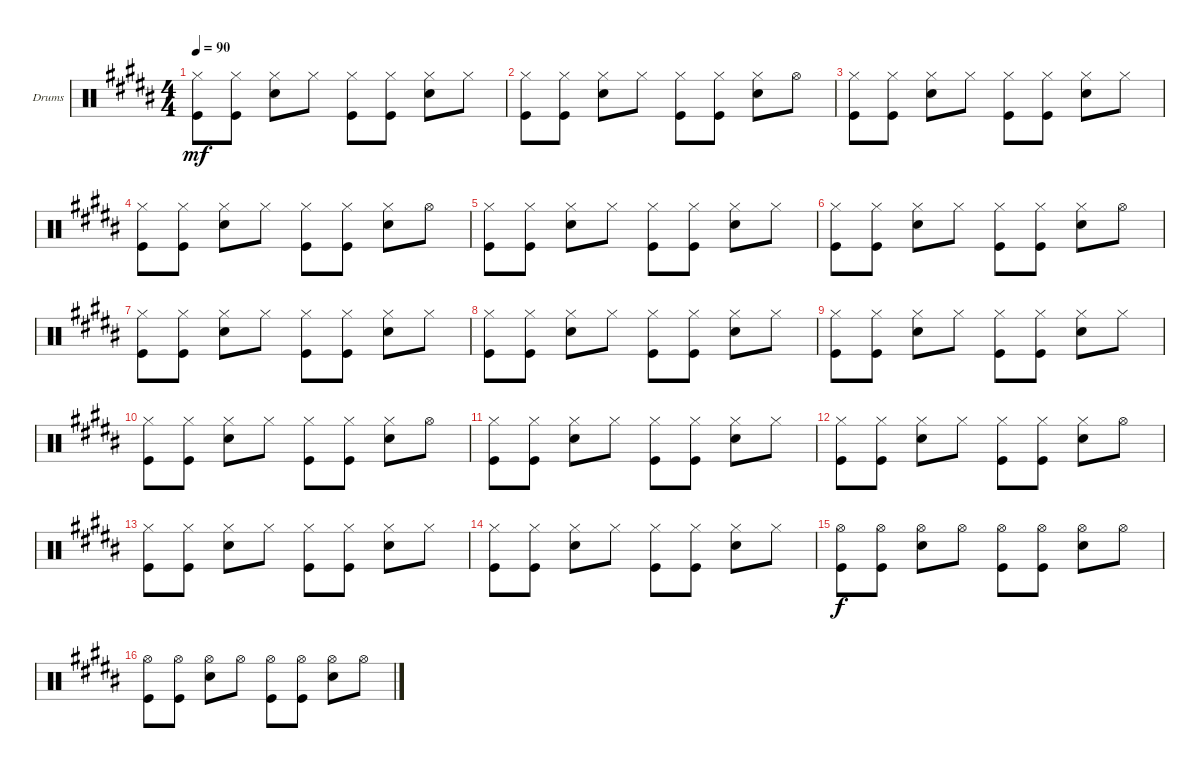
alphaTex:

\defaultSystemsLayout 4
\bracketExtendMode groupsimilarinstruments
\firstSystemTrackNameOrientation horizontal
\otherSystemsTrackNameOrientation horizontal
\track ("Drumkit" "Drums") {instrument percussion}
\staff {score}
\articulation defaults
\ts (4 4)
\tempo 90
\clef neutral
\ks b
("Kick (hit)" "Hi-Hat (closed)").8{dy mf} ("Kick (hit)" "Hi-Hat (closed)").8 ("Snare (hit) 2" "Hi-Hat (closed)").8 "Hi-Hat (closed)".8 ("Hi-Hat (closed)" "Kick (hit)").8 ("Hi-Hat (closed)" "Kick (hit)").8 ("Hi-Hat (closed)" "Snare (hit) 2").8 "Hi-Hat (closed)".8 |
("Kick (hit)" "Hi-Hat (closed)").8 ("Kick (hit)" "Hi-Hat (closed)").8 ("Snare (hit) 2" "Hi-Hat (closed)").8 "Hi-Hat (closed)".8 ("Hi-Hat (closed)" "Kick (hit)").8 ("Hi-Hat (closed)" "Kick (hit)").8 ("Hi-Hat (closed)" "Snare (hit) 2").8 "Hi-Hat (open)".8 |
("Kick (hit)" "Hi-Hat (closed)").8 ("Kick (hit)" "Hi-Hat (closed)").8 ("Snare (hit) 2" "Hi-Hat (closed)").8 "Hi-Hat (closed)".8 ("Hi-Hat (closed)" "Kick (hit)").8 ("Hi-Hat (closed)" "Kick (hit)").8 ("Hi-Hat (closed)" "Snare (hit) 2").8 "Hi-Hat (closed)".8 |
("Kick (hit)" "Hi-Hat (closed)").8 ("Kick (hit)" "Hi-Hat (closed)").8 ("Snare (hit) 2" "Hi-Hat (closed)").8 "Hi-Hat (closed)".8 ("Hi-Hat (closed)" "Kick (hit)").8 ("Hi-Hat (closed)" "Kick (hit)").8 ("Hi-Hat (closed)" "Snare (hit) 2").8 "Hi-Hat (open)".8 |
("Kick (hit)" "Hi-Hat (closed)").8 ("Kick (hit)" "Hi-Hat (closed)").8 ("Snare (hit) 2" "Hi-Hat (closed)").8 "Hi-Hat (closed)".8 ("Hi-Hat (closed)" "Kick (hit)").8 ("Hi-Hat (closed)" "Kick (hit)").8 ("Hi-Hat (closed)" "Snare (hit) 2").8 "Hi-Hat (closed)".8 |
("Kick (hit)" "Hi-Hat (closed)").8 ("Kick (hit)" "Hi-Hat (closed)").8 ("Snare (hit) 2" "Hi-Hat (closed)").8 "Hi-Hat (closed)".8 ("Hi-Hat (closed)" "Kick (hit)").8 ("Hi-Hat (closed)" "Kick (hit)").8 ("Hi-Hat (closed)" "Snare (hit) 2").8 "Hi-Hat (open)".8 |
("Kick (hit)" "Hi-Hat (closed)").8 ("Kick (hit)" "Hi-Hat (closed)").8 ("Snare (hit) 2" "Hi-Hat (closed)").8 "Hi-Hat (closed)".8 ("Hi-Hat (closed)" "Kick (hit)").8 ("Hi-Hat (closed)" "Kick (hit)").8 ("Hi-Hat (closed)" "Snare (hit) 2").8 "Hi-Hat (closed)".8 |
("Kick (hit)" "Hi-Hat (closed)").8 ("Kick (hit)" "Hi-Hat (closed)").8 ("Snare (hit) 2" "Hi-Hat (closed)").8 "Hi-Hat (closed)".8 ("Hi-Hat (closed)" "Kick (hit)").8 ("Hi-Hat (closed)" "Kick (hit)").8 ("Hi-Hat (closed)" "Snare (hit) 2").8 "Hi-Hat (closed)".8 |
("Kick (hit)" "Hi-Hat (closed)").8 ("Kick (hit)" "Hi-Hat (closed)").8 ("Snare (hit) 2" "Hi-Hat (closed)").8 "Hi-Hat (closed)".8 ("Hi-Hat (closed)" "Kick (hit)").8 ("Hi-Hat (closed)" "Kick (hit)").8 ("Hi-Hat (closed)" "Snare (hit) 2").8 "Hi-Hat (closed)".8 |
("Kick (hit)" "Hi-Hat (closed)").8 ("Kick (hit)" "Hi-Hat (closed)").8 ("Snare (hit) 2" "Hi-Hat (closed)").8 "Hi-Hat (closed)".8 ("Hi-Hat (closed)" "Kick (hit)").8 ("Hi-Hat (closed)" "Kick (hit)").8 ("Hi-Hat (closed)" "Snare (hit) 2").8 "Hi-Hat (open)".8 |
("Kick (hit)" "Hi-Hat (closed)").8 ("Kick (hit)" "Hi-Hat (closed)").8 ("Snare (hit) 2" "Hi-Hat (closed)").8 "Hi-Hat (closed)".8 ("Hi-Hat (closed)" "Kick (hit)").8 ("Hi-Hat (closed)" "Kick (hit)").8 ("Hi-Hat (closed)" "Snare (hit) 2").8 "Hi-Hat (closed)".8 |
("Kick (hit)" "Hi-Hat (closed)").8 ("Kick (hit)" "Hi-Hat (closed)").8 ("Snare (hit) 2" "Hi-Hat (closed)").8 "Hi-Hat (closed)".8 ("Hi-Hat (closed)" "Kick (hit)").8 ("Hi-Hat (closed)" "Kick (hit)").8 ("Hi-Hat (closed)" "Snare (hit) 2").8 "Hi-Hat (open)".8 |
("Kick (hit)" "Hi-Hat (closed)").8 ("Kick (hit)" "Hi-Hat (closed)").8 ("Snare (hit) 2" "Hi-Hat (closed)").8 "Hi-Hat (closed)".8 ("Hi-Hat (closed)" "Kick (hit)").8 ("Hi-Hat (closed)" "Kick (hit)").8 ("Hi-Hat (closed)" "Snare (hit) 2").8 "Hi-Hat (closed)".8 |
("Kick (hit)" "Hi-Hat (closed)").8 ("Kick (hit)" "Hi-Hat (closed)").8 ("Snare (hit) 2" "Hi-Hat (closed)").8 "Hi-Hat (closed)".8 ("Hi-Hat (closed)" "Kick (hit)").8 ("Hi-Hat (closed)" "Kick (hit)").8 ("Hi-Hat (closed)" "Snare (hit) 2").8 "Hi-Hat (closed)".8 |
("Kick (hit)" "Hi-Hat (open)").8{dy f} ("Kick (hit)" "Hi-Hat (open)").8 ("Snare (hit) 2" "Hi-Hat (open)").8 "Hi-Hat (open)".8 ("Kick (hit)" "Hi-Hat (open)").8 ("Kick (hit)" "Hi-Hat (open)").8 ("Snare (hit) 2" "Hi-Hat (open)").8 "Hi-Hat (open)".8 |
("Kick (hit)" "Hi-Hat (open)").8 ("Kick (hit)" "Hi-Hat (open)").8 ("Snare (hit) 2" "Hi-Hat (open)").8 "Hi-Hat (open)".8 ("Kick (hit)" "Hi-Hat (open)").8 ("Kick (hit)" "Hi-Hat (open)").8 ("Snare (hit) 2" "Hi-Hat (open)").8 "Hi-Hat (open)".8
